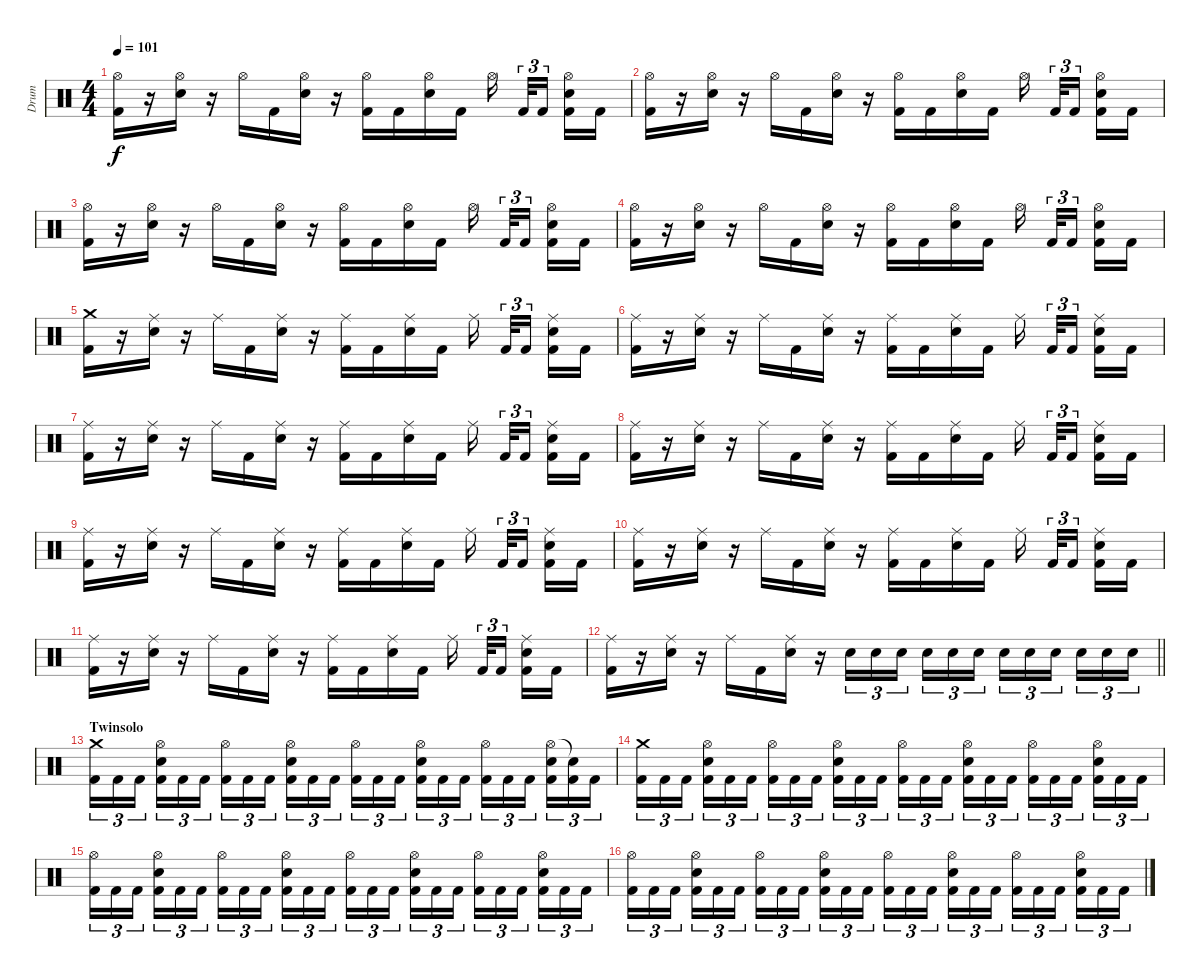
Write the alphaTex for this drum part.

\track ("Drum" "Drum") {instrument percussion}
\staff {score}
\articulation defaults
\ts (4 4)
\tempo 101
\clef neutral
\ks c
("Hi-Hat (open)" "Kick (hit) 2").16{dy f} r.16 ("Hi-Hat (open)" "Snare (hit) 2").16 r.16 "Hi-Hat (open)".16 "Kick (hit) 2".16 ("Hi-Hat (open)" "Snare (hit) 2").16 r.16 ("Hi-Hat (open)" "Kick (hit) 2").16 "Kick (hit) 2".16 ("Hi-Hat (open)" "Snare (hit) 2").16 "Kick (hit) 2".16 "Hi-Hat (open)".16{beam splitsecondary} "Kick (hit) 2".32{tu (3 2)} "Kick (hit) 2".16{tu (3 2) beam splitsecondary} ("Hi-Hat (open)" "Snare (hit) 2" "Kick (hit) 2").16 "Kick (hit) 2".16 |
("Hi-Hat (open)" "Kick (hit) 2").16 r.16 ("Hi-Hat (open)" "Snare (hit) 2").16 r.16 "Hi-Hat (open)".16 "Kick (hit) 2".16 ("Hi-Hat (open)" "Snare (hit) 2").16 r.16 ("Hi-Hat (open)" "Kick (hit) 2").16 "Kick (hit) 2".16 ("Hi-Hat (open)" "Snare (hit) 2").16 "Kick (hit) 2".16 "Hi-Hat (open)".16{beam splitsecondary} "Kick (hit) 2".32{tu (3 2)} "Kick (hit) 2".16{tu (3 2) beam splitsecondary} ("Hi-Hat (open)" "Snare (hit) 2" "Kick (hit) 2").16 "Kick (hit) 2".16 |
("Hi-Hat (open)" "Kick (hit) 2").16 r.16 ("Hi-Hat (open)" "Snare (hit) 2").16 r.16 "Hi-Hat (open)".16 "Kick (hit) 2".16 ("Hi-Hat (open)" "Snare (hit) 2").16 r.16 ("Hi-Hat (open)" "Kick (hit) 2").16 "Kick (hit) 2".16 ("Hi-Hat (open)" "Snare (hit) 2").16 "Kick (hit) 2".16 "Hi-Hat (open)".16{beam splitsecondary} "Kick (hit) 2".32{tu (3 2)} "Kick (hit) 2".16{tu (3 2) beam splitsecondary} ("Hi-Hat (open)" "Snare (hit) 2" "Kick (hit) 2").16 "Kick (hit) 2".16 |
("Hi-Hat (open)" "Kick (hit) 2").16 r.16 ("Hi-Hat (open)" "Snare (hit) 2").16 r.16 "Hi-Hat (open)".16 "Kick (hit) 2".16 ("Hi-Hat (open)" "Snare (hit) 2").16 r.16 ("Hi-Hat (open)" "Kick (hit) 2").16 "Kick (hit) 2".16 ("Hi-Hat (open)" "Snare (hit) 2").16 "Kick (hit) 2".16 "Hi-Hat (open)".16{beam splitsecondary} "Kick (hit) 2".32{tu (3 2)} "Kick (hit) 2".16{tu (3 2) beam splitsecondary} ("Hi-Hat (open)" "Snare (hit) 2" "Kick (hit) 2").16 "Kick (hit) 2".16 |
("Crash medium (hit)" "Kick (hit) 2").16 r.16 ("Ride (middle)" "Snare (hit) 2").16 r.16 "Ride (middle)".16 "Kick (hit) 2".16 ("Ride (middle)" "Snare (hit) 2").16 r.16 ("Ride (middle)" "Kick (hit) 2").16 "Kick (hit) 2".16 ("Ride (middle)" "Snare (hit) 2").16 "Kick (hit) 2".16 "Ride (middle)".16{beam splitsecondary} "Kick (hit) 2".32{tu (3 2)} "Kick (hit) 2".16{tu (3 2) beam splitsecondary} ("Ride (middle)" "Snare (hit) 2" "Kick (hit) 2").16 "Kick (hit) 2".16 |
("Ride (middle)" "Kick (hit) 2").16 r.16 ("Ride (middle)" "Snare (hit) 2").16 r.16 "Ride (middle)".16 "Kick (hit) 2".16 ("Ride (middle)" "Snare (hit) 2").16 r.16 ("Ride (middle)" "Kick (hit) 2").16 "Kick (hit) 2".16 ("Ride (middle)" "Snare (hit) 2").16 "Kick (hit) 2".16 "Ride (middle)".16{beam splitsecondary} "Kick (hit) 2".32{tu (3 2)} "Kick (hit) 2".16{tu (3 2) beam splitsecondary} ("Ride (middle)" "Snare (hit) 2" "Kick (hit) 2").16 "Kick (hit) 2".16 |
("Ride (middle)" "Kick (hit) 2").16 r.16 ("Ride (middle)" "Snare (hit) 2").16 r.16 "Ride (middle)".16 "Kick (hit) 2".16 ("Ride (middle)" "Snare (hit) 2").16 r.16 ("Ride (middle)" "Kick (hit) 2").16 "Kick (hit) 2".16 ("Ride (middle)" "Snare (hit) 2").16 "Kick (hit) 2".16 "Ride (middle)".16{beam splitsecondary} "Kick (hit) 2".32{tu (3 2)} "Kick (hit) 2".16{tu (3 2) beam splitsecondary} ("Ride (middle)" "Snare (hit) 2" "Kick (hit) 2").16 "Kick (hit) 2".16 |
("Ride (middle)" "Kick (hit) 2").16 r.16 ("Ride (middle)" "Snare (hit) 2").16 r.16 "Ride (middle)".16 "Kick (hit) 2".16 ("Ride (middle)" "Snare (hit) 2").16 r.16 ("Ride (middle)" "Kick (hit) 2").16 "Kick (hit) 2".16 ("Ride (middle)" "Snare (hit) 2").16 "Kick (hit) 2".16 "Ride (middle)".16{beam splitsecondary} "Kick (hit) 2".32{tu (3 2)} "Kick (hit) 2".16{tu (3 2) beam splitsecondary} ("Ride (middle)" "Snare (hit) 2" "Kick (hit) 2").16 "Kick (hit) 2".16 |
("Ride (middle)" "Kick (hit) 2").16 r.16 ("Ride (middle)" "Snare (hit) 2").16 r.16 "Ride (middle)".16 "Kick (hit) 2".16 ("Ride (middle)" "Snare (hit) 2").16 r.16 ("Ride (middle)" "Kick (hit) 2").16 "Kick (hit) 2".16 ("Ride (middle)" "Snare (hit) 2").16 "Kick (hit) 2".16 "Ride (middle)".16{beam splitsecondary} "Kick (hit) 2".32{tu (3 2)} "Kick (hit) 2".16{tu (3 2) beam splitsecondary} ("Ride (middle)" "Snare (hit) 2" "Kick (hit) 2").16 "Kick (hit) 2".16 |
("Ride (middle)" "Kick (hit) 2").16 r.16 ("Ride (middle)" "Snare (hit) 2").16 r.16 "Ride (middle)".16 "Kick (hit) 2".16 ("Ride (middle)" "Snare (hit) 2").16 r.16 ("Ride (middle)" "Kick (hit) 2").16 "Kick (hit) 2".16 ("Ride (middle)" "Snare (hit) 2").16 "Kick (hit) 2".16 "Ride (middle)".16{beam splitsecondary} "Kick (hit) 2".32{tu (3 2)} "Kick (hit) 2".16{tu (3 2) beam splitsecondary} ("Ride (middle)" "Snare (hit) 2" "Kick (hit) 2").16 "Kick (hit) 2".16 |
("Ride (middle)" "Kick (hit) 2").16 r.16 ("Ride (middle)" "Snare (hit) 2").16 r.16 "Ride (middle)".16 "Kick (hit) 2".16 ("Ride (middle)" "Snare (hit) 2").16 r.16 ("Ride (middle)" "Kick (hit) 2").16 "Kick (hit) 2".16 ("Ride (middle)" "Snare (hit) 2").16 "Kick (hit) 2".16 "Ride (middle)".16{beam splitsecondary} "Kick (hit) 2".32{tu (3 2)} "Kick (hit) 2".16{tu (3 2) beam splitsecondary} ("Ride (middle)" "Snare (hit) 2" "Kick (hit) 2").16 "Kick (hit) 2".16 |
\barLineRight lightlight
("Ride (middle)" "Kick (hit) 2").16 r.16 ("Ride (middle)" "Snare (hit) 2").16 r.16 "Ride (middle)".16 "Kick (hit) 2".16 ("Ride (middle)" "Snare (hit) 2").16 r.16 "Snare (hit) 2".16{tu (3 2)} "Snare (hit) 2".16{tu (3 2)} "Snare (hit) 2".16{tu (3 2) beam splitsecondary} "Snare (hit) 2".16{tu (3 2)} "Snare (hit) 2".16{tu (3 2)} "Snare (hit) 2".16{tu (3 2)} "Snare (hit) 2".16{tu (3 2)} "Snare (hit) 2".16{tu (3 2)} "Snare (hit) 2".16{tu (3 2) beam splitsecondary} "Snare (hit) 2".16{tu (3 2)} "Snare (hit) 2".16{tu (3 2)} "Snare (hit) 2".16{tu (3 2)} |
\section ("" "Twinsolo")
("Crash medium (hit)" "Kick (hit) 2").16{tu (3 2)} "Kick (hit) 2".16{tu (3 2)} "Kick (hit) 2".16{tu (3 2) beam splitsecondary} ("Hi-Hat (open)" "Snare (hit) 2" "Kick (hit) 2").16{tu (3 2)} "Kick (hit) 2".16{tu (3 2)} "Kick (hit) 2".16{tu (3 2)} ("Hi-Hat (open)" "Kick (hit) 2").16{tu (3 2)} "Kick (hit) 2".16{tu (3 2)} "Kick (hit) 2".16{tu (3 2) beam splitsecondary} ("Hi-Hat (open)" "Snare (hit) 2" "Kick (hit) 2").16{tu (3 2)} "Kick (hit) 2".16{tu (3 2)} "Kick (hit) 2".16{tu (3 2)} ("Hi-Hat (open)" "Kick (hit) 2").16{tu (3 2)} "Kick (hit) 2".16{tu (3 2)} "Kick (hit) 2".16{tu (3 2) beam splitsecondary} ("Hi-Hat (open)" "Snare (hit) 2" "Kick (hit) 2").16{tu (3 2)} "Kick (hit) 2".16{tu (3 2)} "Kick (hit) 2".16{tu (3 2)} ("Hi-Hat (open)" "Kick (hit) 2").16{tu (3 2)} "Kick (hit) 2".16{tu (3 2)} "Kick (hit) 2".16{tu (3 2) beam splitsecondary} ("Hi-Hat (open)" "Snare (hit) 2" "Kick (hit) 2").16{tu (3 2)} ("Snare (hit)"{t} "Kick (hit) 2").16{tu (3 2)} "Kick (hit) 2".16{tu (3 2)} |
("Crash medium (hit)" "Kick (hit) 2").16{tu (3 2)} "Kick (hit) 2".16{tu (3 2)} "Kick (hit) 2".16{tu (3 2) beam splitsecondary} ("Hi-Hat (open)" "Snare (hit) 2" "Kick (hit) 2").16{tu (3 2)} "Kick (hit) 2".16{tu (3 2)} "Kick (hit) 2".16{tu (3 2)} ("Hi-Hat (open)" "Kick (hit) 2").16{tu (3 2)} "Kick (hit) 2".16{tu (3 2)} "Kick (hit) 2".16{tu (3 2) beam splitsecondary} ("Hi-Hat (open)" "Snare (hit) 2" "Kick (hit) 2").16{tu (3 2)} "Kick (hit) 2".16{tu (3 2)} "Kick (hit) 2".16{tu (3 2)} ("Hi-Hat (open)" "Kick (hit) 2").16{tu (3 2)} "Kick (hit) 2".16{tu (3 2)} "Kick (hit) 2".16{tu (3 2) beam splitsecondary} ("Hi-Hat (open)" "Snare (hit) 2" "Kick (hit) 2").16{tu (3 2)} "Kick (hit) 2".16{tu (3 2)} "Kick (hit) 2".16{tu (3 2)} ("Hi-Hat (open)" "Kick (hit) 2").16{tu (3 2)} "Kick (hit) 2".16{tu (3 2)} "Kick (hit) 2".16{tu (3 2) beam splitsecondary} ("Hi-Hat (open)" "Snare (hit) 2" "Kick (hit) 2").16{tu (3 2)} "Kick (hit) 2".16{tu (3 2)} "Kick (hit) 2".16{tu (3 2)} |
("Hi-Hat (open)" "Kick (hit) 2").16{tu (3 2)} "Kick (hit) 2".16{tu (3 2)} "Kick (hit) 2".16{tu (3 2) beam splitsecondary} ("Hi-Hat (open)" "Snare (hit) 2" "Kick (hit) 2").16{tu (3 2)} "Kick (hit) 2".16{tu (3 2)} "Kick (hit) 2".16{tu (3 2)} ("Hi-Hat (open)" "Kick (hit) 2").16{tu (3 2)} "Kick (hit) 2".16{tu (3 2)} "Kick (hit) 2".16{tu (3 2) beam splitsecondary} ("Hi-Hat (open)" "Snare (hit) 2" "Kick (hit) 2").16{tu (3 2)} "Kick (hit) 2".16{tu (3 2)} "Kick (hit) 2".16{tu (3 2)} ("Hi-Hat (open)" "Kick (hit) 2").16{tu (3 2)} "Kick (hit) 2".16{tu (3 2)} "Kick (hit) 2".16{tu (3 2) beam splitsecondary} ("Hi-Hat (open)" "Snare (hit) 2" "Kick (hit) 2").16{tu (3 2)} "Kick (hit) 2".16{tu (3 2)} "Kick (hit) 2".16{tu (3 2)} ("Hi-Hat (open)" "Kick (hit) 2").16{tu (3 2)} "Kick (hit) 2".16{tu (3 2)} "Kick (hit) 2".16{tu (3 2) beam splitsecondary} ("Hi-Hat (open)" "Snare (hit) 2" "Kick (hit) 2").16{tu (3 2)} "Kick (hit) 2".16{tu (3 2)} "Kick (hit) 2".16{tu (3 2)} |
("Hi-Hat (open)" "Kick (hit) 2").16{tu (3 2)} "Kick (hit) 2".16{tu (3 2)} "Kick (hit) 2".16{tu (3 2) beam splitsecondary} ("Hi-Hat (open)" "Snare (hit) 2" "Kick (hit) 2").16{tu (3 2)} "Kick (hit) 2".16{tu (3 2)} "Kick (hit) 2".16{tu (3 2)} ("Hi-Hat (open)" "Kick (hit) 2").16{tu (3 2)} "Kick (hit) 2".16{tu (3 2)} "Kick (hit) 2".16{tu (3 2) beam splitsecondary} ("Hi-Hat (open)" "Snare (hit) 2" "Kick (hit) 2").16{tu (3 2)} "Kick (hit) 2".16{tu (3 2)} "Kick (hit) 2".16{tu (3 2)} ("Hi-Hat (open)" "Kick (hit) 2").16{tu (3 2)} "Kick (hit) 2".16{tu (3 2)} "Kick (hit) 2".16{tu (3 2) beam splitsecondary} ("Hi-Hat (open)" "Snare (hit) 2" "Kick (hit) 2").16{tu (3 2)} "Kick (hit) 2".16{tu (3 2)} "Kick (hit) 2".16{tu (3 2)} ("Hi-Hat (open)" "Kick (hit) 2").16{tu (3 2)} "Kick (hit) 2".16{tu (3 2)} "Kick (hit) 2".16{tu (3 2) beam splitsecondary} ("Hi-Hat (open)" "Snare (hit) 2" "Kick (hit) 2").16{tu (3 2)} "Kick (hit) 2".16{tu (3 2)} "Kick (hit) 2".16{tu (3 2)}
